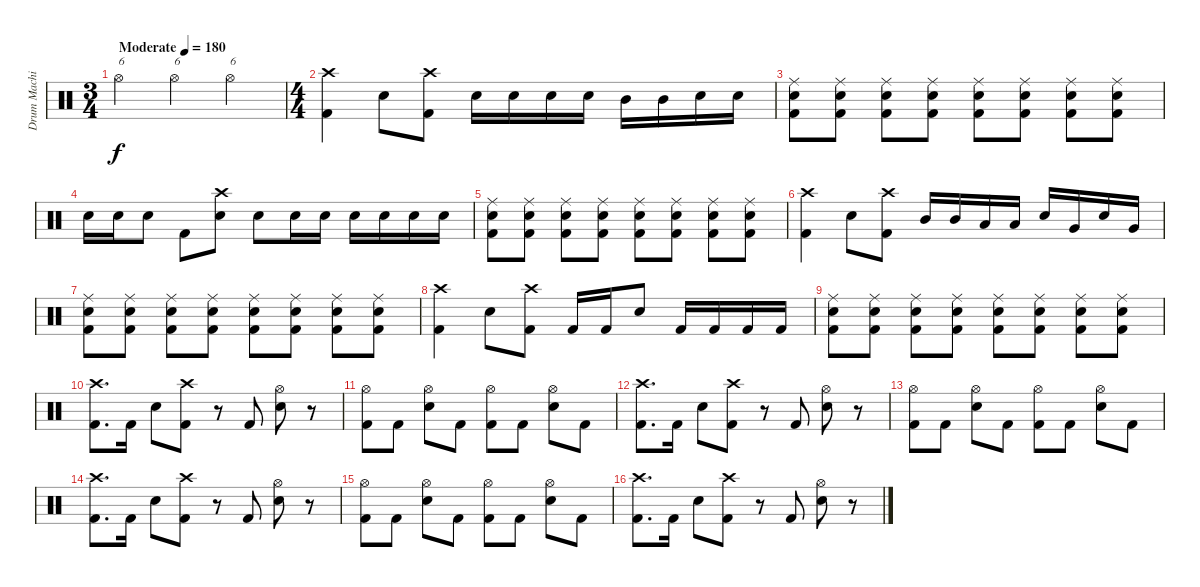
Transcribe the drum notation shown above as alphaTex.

\track ("Drum Machine" "Drum Machi") {instrument percussion}
\staff {score}
\articulation defaults
\ts (3 4)
\tempo (180 "Moderate")
\clef neutral
\ks c "Hi-Hat (open)".4{txt "6" dy f} "Hi-Hat (open)".4{txt "6"} "Hi-Hat (open)".4{txt "6"}
|
\ts (4 4)
("Crash high (hit)" "Kick (hit) 2").4 "Snare (hit) 2".8 ("Crash high (hit)" "Kick (hit) 2").8 "Snare (hit) 2".16 "Snare (hit) 2".16 "Snare (hit) 2".16 "Snare (hit) 2".16 "Mid Tom (hit)".16 "Mid Tom (hit)".16 "Snare (hit) 2".16 "Snare (hit) 2".16 |
("Ride (middle)" "Snare (hit) 2" "Kick (hit) 2").8 ("Ride (middle)" "Snare (hit) 2" "Kick (hit) 2").8 ("Ride (middle)" "Snare (hit) 2" "Kick (hit) 2").8 ("Ride (middle)" "Snare (hit) 2" "Kick (hit) 2").8 ("Ride (middle)" "Snare (hit) 2" "Kick (hit) 2").8 ("Ride (middle)" "Snare (hit) 2" "Kick (hit) 2").8 ("Ride (middle)" "Snare (hit) 2" "Kick (hit) 2").8 ("Ride (middle)" "Snare (hit) 2" "Kick (hit) 2").8 |
"Snare (hit) 2".16 "Snare (hit) 2".16 "Snare (hit) 2".8 "Kick (hit) 2".8 ("Crash high (hit)" "Snare (hit) 2").8 "Snare (hit) 2".8 "Snare (hit) 2".16 "Snare (hit) 2".16 "Snare (hit) 2".16 "Snare (hit) 2".16 "Snare (hit) 2".16 "Snare (hit) 2".16 |
("Ride (middle)" "Snare (hit) 2" "Kick (hit) 2").8 ("Ride (middle)" "Snare (hit) 2" "Kick (hit) 2").8 ("Ride (middle)" "Snare (hit) 2" "Kick (hit) 2").8 ("Ride (middle)" "Snare (hit) 2" "Kick (hit) 2").8 ("Ride (middle)" "Snare (hit) 2" "Kick (hit) 2").8 ("Ride (middle)" "Snare (hit) 2" "Kick (hit) 2").8 ("Ride (middle)" "Snare (hit) 2" "Kick (hit) 2").8 ("Ride (middle)" "Snare (hit) 2" "Kick (hit) 2").8 |
("Crash high (hit)" "Kick (hit) 2").4 "Snare (hit) 2".8 ("Crash high (hit)" "Kick (hit) 2").8 "Mid Tom (hit)".16 "Mid Tom (hit)".16 "Low Tom (hit)".16 "Low Tom (hit)".16 "Snare (hit) 2".16 "Very Low Tom (hit)".16 "Snare (hit) 2".16 "Very Low Tom (hit)".16 |
("Ride (middle)" "Snare (hit) 2" "Kick (hit) 2").8 ("Ride (middle)" "Snare (hit) 2" "Kick (hit) 2").8 ("Ride (middle)" "Snare (hit) 2" "Kick (hit) 2").8 ("Ride (middle)" "Snare (hit) 2" "Kick (hit) 2").8 ("Ride (middle)" "Snare (hit) 2" "Kick (hit) 2").8 ("Ride (middle)" "Snare (hit) 2" "Kick (hit) 2").8 ("Ride (middle)" "Snare (hit) 2" "Kick (hit) 2").8 ("Ride (middle)" "Snare (hit) 2" "Kick (hit) 2").8 |
("Crash high (hit)" "Kick (hit) 2").4 "Snare (hit) 2".8 ("Crash high (hit)" "Kick (hit) 2").8 "Kick (hit) 2".16 "Kick (hit) 2".16 "Snare (hit) 2".8 "Kick (hit) 2".16 "Kick (hit) 2".16 "Kick (hit) 2".16 "Kick (hit) 2".16 |
("Ride (middle)" "Snare (hit) 2" "Kick (hit) 2").8 ("Ride (middle)" "Snare (hit) 2" "Kick (hit) 2").8 ("Ride (middle)" "Snare (hit) 2" "Kick (hit) 2").8 ("Ride (middle)" "Snare (hit) 2" "Kick (hit) 2").8 ("Ride (middle)" "Snare (hit) 2" "Kick (hit) 2").8 ("Ride (middle)" "Snare (hit) 2" "Kick (hit) 2").8 ("Ride (middle)" "Snare (hit) 2" "Kick (hit) 2").8 ("Ride (middle)" "Snare (hit) 2" "Kick (hit) 2").8 |
("Crash high (hit)" "Kick (hit) 2").8{d} "Kick (hit) 2".16 "Snare (hit) 2".8 ("Crash high (hit)" "Kick (hit) 2").8 r.8 "Kick (hit) 2".8 ("Hi-Hat (open)" "Snare (hit) 2").8 r.8 |
("Hi-Hat (open)" "Kick (hit) 2").8 "Kick (hit) 2".8 ("Hi-Hat (open)" "Snare (hit) 2").8 "Kick (hit) 2".8 ("Hi-Hat (open)" "Kick (hit) 2").8 "Kick (hit) 2".8 ("Hi-Hat (open)" "Snare (hit) 2").8 "Kick (hit) 2".8 |
("Crash high (hit)" "Kick (hit) 2").8{d} "Kick (hit) 2".16 "Snare (hit) 2".8 ("Crash high (hit)" "Kick (hit) 2").8 r.8 "Kick (hit) 2".8 ("Hi-Hat (open)" "Snare (hit) 2").8 r.8 |
("Hi-Hat (open)" "Kick (hit) 2").8 "Kick (hit) 2".8 ("Hi-Hat (open)" "Snare (hit) 2").8 "Kick (hit) 2".8 ("Hi-Hat (open)" "Kick (hit) 2").8 "Kick (hit) 2".8 ("Hi-Hat (open)" "Snare (hit) 2").8 "Kick (hit) 2".8 |
("Crash high (hit)" "Kick (hit) 2").8{d} "Kick (hit) 2".16 "Snare (hit) 2".8 ("Crash high (hit)" "Kick (hit) 2").8 r.8 "Kick (hit) 2".8 ("Hi-Hat (open)" "Snare (hit) 2").8 r.8 |
("Hi-Hat (open)" "Kick (hit) 2").8 "Kick (hit) 2".8 ("Hi-Hat (open)" "Snare (hit) 2").8 "Kick (hit) 2".8 ("Hi-Hat (open)" "Kick (hit) 2").8 "Kick (hit) 2".8 ("Hi-Hat (open)" "Snare (hit) 2").8 "Kick (hit) 2".8 |
("Crash high (hit)" "Kick (hit) 2").8{d} "Kick (hit) 2".16 "Snare (hit) 2".8 ("Crash high (hit)" "Kick (hit) 2").8 r.8 "Kick (hit) 2".8 ("Hi-Hat (open)" "Snare (hit) 2").8 r.8
